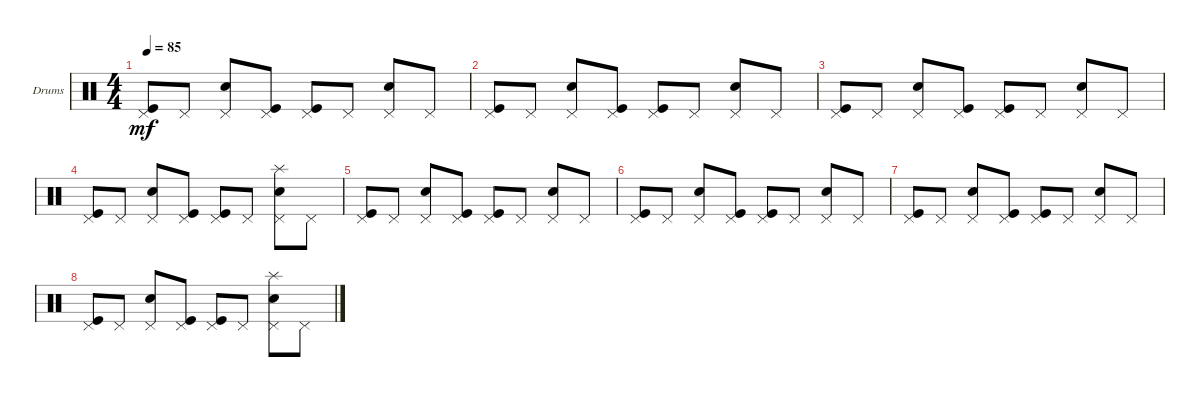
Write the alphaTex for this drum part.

\defaultSystemsLayout 4
\bracketExtendMode groupsimilarinstruments
\firstSystemTrackNameOrientation horizontal
\otherSystemsTrackNameOrientation horizontal
\track ("Drums" "Drums") {instrument percussion}
\staff {score}
\articulation defaults
\ts (4 4)
\tempo 85
\clef neutral
\ks c
("Kick (hit)" "Pedal Hi-Hat (hit)").8{dy mf} "Pedal Hi-Hat (hit)".8 ("Snare (hit) 2" "Pedal Hi-Hat (hit)").8 ("Pedal Hi-Hat (hit)" "Kick (hit)").8 ("Kick (hit)" "Pedal Hi-Hat (hit)").8 "Pedal Hi-Hat (hit)".8 ("Snare (hit) 2" "Pedal Hi-Hat (hit)").8 "Pedal Hi-Hat (hit)".8 |
("Kick (hit)" "Pedal Hi-Hat (hit)").8 "Pedal Hi-Hat (hit)".8 ("Snare (hit) 2" "Pedal Hi-Hat (hit)").8 ("Pedal Hi-Hat (hit)" "Kick (hit)").8 ("Kick (hit)" "Pedal Hi-Hat (hit)").8 "Pedal Hi-Hat (hit)".8 ("Snare (hit) 2" "Pedal Hi-Hat (hit)").8 "Pedal Hi-Hat (hit)".8 |
("Kick (hit)" "Pedal Hi-Hat (hit)").8 "Pedal Hi-Hat (hit)".8 ("Snare (hit) 2" "Pedal Hi-Hat (hit)").8 ("Pedal Hi-Hat (hit)" "Kick (hit)").8 ("Kick (hit)" "Pedal Hi-Hat (hit)").8 "Pedal Hi-Hat (hit)".8 ("Snare (hit) 2" "Pedal Hi-Hat (hit)").8 "Pedal Hi-Hat (hit)".8 |
("Kick (hit)" "Pedal Hi-Hat (hit)").8 "Pedal Hi-Hat (hit)".8 ("Snare (hit) 2" "Pedal Hi-Hat (hit)").8 ("Pedal Hi-Hat (hit)" "Kick (hit)").8 ("Kick (hit)" "Pedal Hi-Hat (hit)").8 "Pedal Hi-Hat (hit)".8 ("Snare (hit) 2" "Pedal Hi-Hat (hit)" "Splash (hit)").8 "Pedal Hi-Hat (hit)".8 |
("Kick (hit)" "Pedal Hi-Hat (hit)").8 "Pedal Hi-Hat (hit)".8 ("Snare (hit) 2" "Pedal Hi-Hat (hit)").8 ("Pedal Hi-Hat (hit)" "Kick (hit)").8 ("Kick (hit)" "Pedal Hi-Hat (hit)").8 "Pedal Hi-Hat (hit)".8 ("Snare (hit) 2" "Pedal Hi-Hat (hit)").8 "Pedal Hi-Hat (hit)".8 |
("Kick (hit)" "Pedal Hi-Hat (hit)").8 "Pedal Hi-Hat (hit)".8 ("Snare (hit) 2" "Pedal Hi-Hat (hit)").8 ("Pedal Hi-Hat (hit)" "Kick (hit)").8 ("Kick (hit)" "Pedal Hi-Hat (hit)").8 "Pedal Hi-Hat (hit)".8 ("Snare (hit) 2" "Pedal Hi-Hat (hit)").8 "Pedal Hi-Hat (hit)".8 |
("Kick (hit)" "Pedal Hi-Hat (hit)").8 "Pedal Hi-Hat (hit)".8 ("Snare (hit) 2" "Pedal Hi-Hat (hit)").8 ("Pedal Hi-Hat (hit)" "Kick (hit)").8 ("Kick (hit)" "Pedal Hi-Hat (hit)").8 "Pedal Hi-Hat (hit)".8 ("Snare (hit) 2" "Pedal Hi-Hat (hit)").8 "Pedal Hi-Hat (hit)".8 |
("Kick (hit)" "Pedal Hi-Hat (hit)").8 "Pedal Hi-Hat (hit)".8 ("Snare (hit) 2" "Pedal Hi-Hat (hit)").8 ("Pedal Hi-Hat (hit)" "Kick (hit)").8 ("Kick (hit)" "Pedal Hi-Hat (hit)").8 "Pedal Hi-Hat (hit)".8 ("Snare (hit) 2" "Pedal Hi-Hat (hit)" "Splash (hit)").8 "Pedal Hi-Hat (hit)".8
